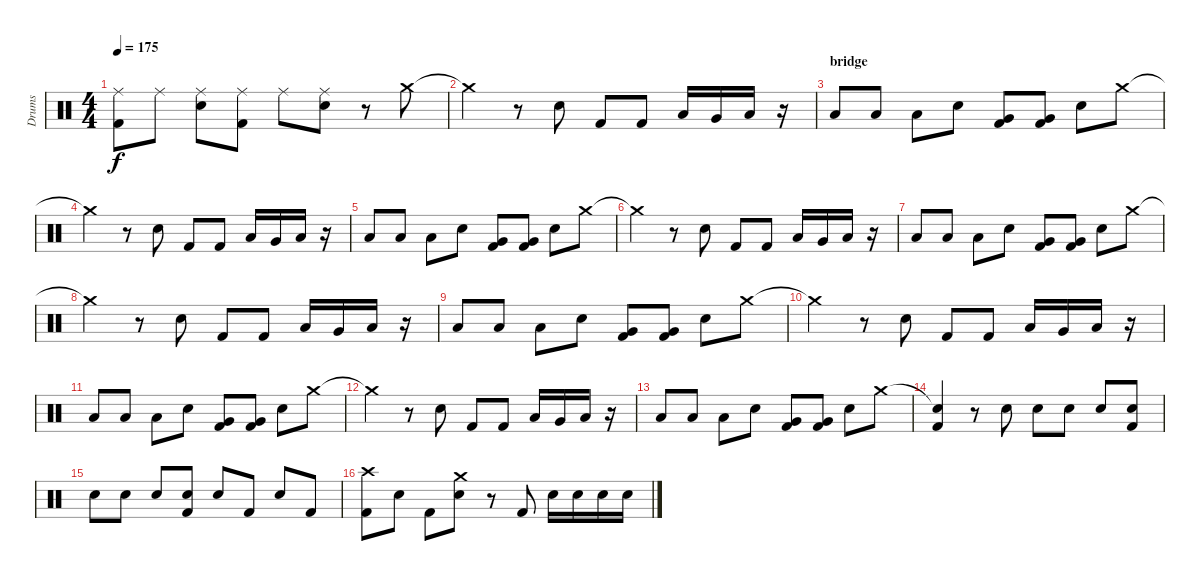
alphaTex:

\track ("Drums" "Drums") {instrument percussion}
\staff {score}
\articulation defaults
\ts (4 4)
\tempo 175
\clef neutral
\ks c
("Ride (middle)" "Kick (hit) 2").8{dy f} "Ride (middle)".8 ("Ride (middle)" "Snare (hit) 2").8 ("Ride (middle)" "Kick (hit) 2").8 "Ride (middle)".8 ("Ride (middle)" "Snare (hit) 2").8 r.8 "Crash medium (hit)".8 |
"Crash medium (hit)"{t}.4 r.8 "Snare (hit) 2".8 "Kick (hit) 2".8 "Kick (hit) 2".8 "Low Tom (hit)".16 "Very Low Tom (hit)".16 "Low Tom (hit)".16 r.16 |
\section ("" "bridge")
"Low Tom (hit)".8 "Low Tom (hit)".8 "Low Tom (hit)".8 "Snare (hit) 2".8 ("Very Low Tom (hit)" "Kick (hit) 2").8 ("Very Low Tom (hit)" "Kick (hit) 2").8 "Snare (hit) 2".8 "Crash medium (hit)".8 |
"Crash medium (hit)"{t}.4 r.8 "Snare (hit) 2".8 "Kick (hit) 2".8 "Kick (hit) 2".8 "Low Tom (hit)".16 "Very Low Tom (hit)".16 "Low Tom (hit)".16 r.16 |
"Low Tom (hit)".8 "Low Tom (hit)".8 "Low Tom (hit)".8 "Snare (hit) 2".8 ("Very Low Tom (hit)" "Kick (hit) 2").8 ("Very Low Tom (hit)" "Kick (hit) 2").8 "Snare (hit) 2".8 "Crash medium (hit)".8 |
"Crash medium (hit)"{t}.4 r.8 "Snare (hit) 2".8 "Kick (hit) 2".8 "Kick (hit) 2".8 "Low Tom (hit)".16 "Very Low Tom (hit)".16 "Low Tom (hit)".16 r.16 |
"Low Tom (hit)".8 "Low Tom (hit)".8 "Low Tom (hit)".8 "Snare (hit) 2".8 ("Very Low Tom (hit)" "Kick (hit) 2").8 ("Very Low Tom (hit)" "Kick (hit) 2").8 "Snare (hit) 2".8 "Crash medium (hit)".8 |
"Crash medium (hit)"{t}.4 r.8 "Snare (hit) 2".8 "Kick (hit) 2".8 "Kick (hit) 2".8 "Low Tom (hit)".16 "Very Low Tom (hit)".16 "Low Tom (hit)".16 r.16 |
"Low Tom (hit)".8 "Low Tom (hit)".8 "Low Tom (hit)".8 "Snare (hit) 2".8 ("Very Low Tom (hit)" "Kick (hit) 2").8 ("Very Low Tom (hit)" "Kick (hit) 2").8 "Snare (hit) 2".8 "Crash medium (hit)".8 |
"Crash medium (hit)"{t}.4 r.8 "Snare (hit) 2".8 "Kick (hit) 2".8 "Kick (hit) 2".8 "Low Tom (hit)".16 "Very Low Tom (hit)".16 "Low Tom (hit)".16 r.16 |
"Low Tom (hit)".8 "Low Tom (hit)".8 "Low Tom (hit)".8 "Snare (hit) 2".8 ("Very Low Tom (hit)" "Kick (hit) 2").8 ("Very Low Tom (hit)" "Kick (hit) 2").8 "Snare (hit) 2".8 "Crash medium (hit)".8 |
"Crash medium (hit)"{t}.4 r.8 "Snare (hit) 2".8 "Kick (hit) 2".8 "Kick (hit) 2".8 "Low Tom (hit)".16 "Very Low Tom (hit)".16 "Low Tom (hit)".16 r.16 |
"Low Tom (hit)".8 "Low Tom (hit)".8 "Low Tom (hit)".8 "Snare (hit) 2".8 ("Very Low Tom (hit)" "Kick (hit) 2").8 ("Very Low Tom (hit)" "Kick (hit) 2").8 "Snare (hit) 2".8 "Crash medium (hit)".8 |
("Snare (hit)"{t} "Kick (hit) 2").4 r.8 "Snare (hit) 2".8 "Snare (hit) 2".8 "Snare (hit) 2".8 "Snare (hit) 2".8 ("Snare (hit) 2" "Kick (hit) 2").8 |
"Snare (hit) 2".8 "Snare (hit) 2".8 "Snare (hit) 2".8 ("Snare (hit) 2" "Kick (hit) 2").8 "Snare (hit) 2".8 "Kick (hit) 2".8 "Snare (hit) 2".8 "Kick (hit) 2".8 |
("Crash high (hit)" "Kick (hit) 2").8 "Snare (hit) 2".8 "Kick (hit) 2".8 ("Crash medium (hit)" "Snare (hit) 2").8 r.8 "Kick (hit) 2".8 "Snare (hit) 2".16 "Snare (hit) 2".16 "Snare (hit) 2".16 "Snare (hit) 2".16
